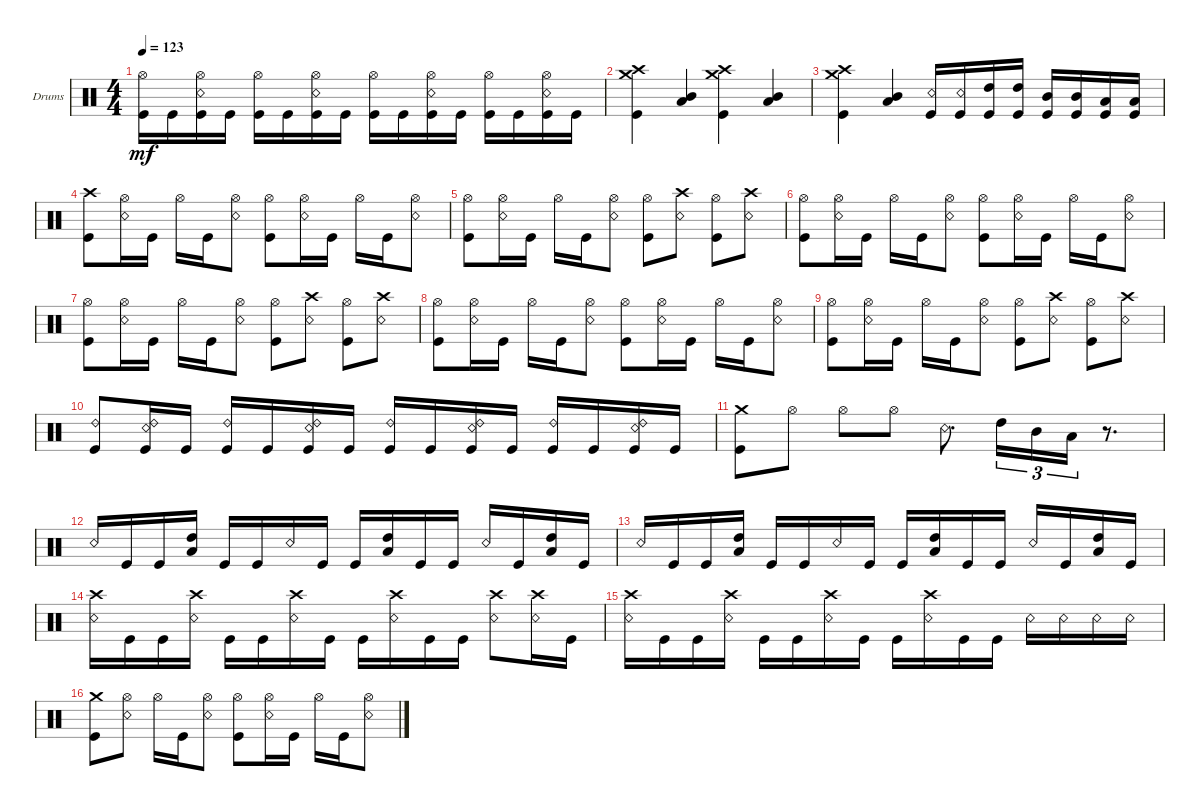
\defaultSystemsLayout 4
\bracketExtendMode groupsimilarinstruments
\firstSystemTrackNameOrientation horizontal
\otherSystemsTrackNameOrientation horizontal
\track ("Drums" "Drums") {instrument percussion}
\staff {score}
\articulation defaults
\ts (4 4)
\tempo 123
\clef neutral
\scale
0.333333
\ks c
("Kick (hit)" "Hi-Hat (open)").16{dy mf} "Kick (hit)".16 ("Kick (hit)" "Hi-Hat (open)" "Snare (rim shot)").16 "Kick (hit)".16 ("Kick (hit)" "Hi-Hat (open)").16 "Kick (hit)".16 ("Kick (hit)" "Hi-Hat (open)" "Snare (rim shot)").16 "Kick (hit)".16 ("Kick (hit)" "Hi-Hat (open)").16 "Kick (hit)".16 ("Kick (hit)" "Hi-Hat (open)" "Snare (rim shot)").16 "Kick (hit)".16 ("Kick (hit)" "Hi-Hat (open)").16 "Kick (hit)".16 ("Kick (hit)" "Snare (rim shot)" "Hi-Hat (open)").16 "Kick (hit)".16 |
\scale
0.333333 ("Kick (hit)" "Crash medium (hit)" "Crash high (hit)").4 ("Low Tom (hit)" "Mid Tom (hit)").4 ("Kick (hit)" "Crash high (hit)" "Crash medium (hit)").4 ("Mid Tom (hit)" "Low Tom (hit)").4 |
\scale
0.333333 ("Kick (hit)" "Crash medium (hit)" "Crash high (hit)").4 ("Low Tom (hit)" "Mid Tom (hit)").4 ("Kick (hit)" "Snare (rim shot)").16 ("Kick (hit)" "Snare (rim shot)").16 ("Kick (hit)" "High Tom (hit)").16 ("Kick (hit)" "High Tom (hit)").16 ("Kick (hit)" "Mid Tom (hit)").16 ("Kick (hit)" "Mid Tom (hit)").16 ("Kick (hit)" "Low Tom (hit)").16 ("Kick (hit)" "Low Tom (hit)").16 |
\scale
0.333333 ("Kick (hit)" "Crash high (hit)").8 ("Snare (rim shot)" "Hi-Hat (open)").16 "Kick (hit)".16 "Hi-Hat (open)".16 "Kick (hit)".16 ("Snare (rim shot)" "Hi-Hat (open)").8 ("Kick (hit)" "Hi-Hat (open)").8 ("Snare (rim shot)" "Hi-Hat (open)").16 "Kick (hit)".16 "Hi-Hat (open)".16 "Kick (hit)".16 ("Snare (rim shot)" "Hi-Hat (open)").8 |
\scale
0.333333 ("Kick (hit)" "Hi-Hat (open)").8 ("Snare (rim shot)" "Hi-Hat (open)").16 "Kick (hit)".16 "Hi-Hat (open)".16 "Kick (hit)".16 ("Snare (rim shot)" "Hi-Hat (open)").8 ("Kick (hit)" "Hi-Hat (open)").8 ("Snare (rim shot)" "Crash high (hit)").8 ("Kick (hit)" "Hi-Hat (open)").8 ("Snare (rim shot)" "Crash high (hit)").8 |
\scale
0.333333 ("Kick (hit)" "Hi-Hat (open)").8 ("Snare (rim shot)" "Hi-Hat (open)").16 "Kick (hit)".16 "Hi-Hat (open)".16 "Kick (hit)".16 ("Snare (rim shot)" "Hi-Hat (open)").8 ("Kick (hit)" "Hi-Hat (open)").8 ("Snare (rim shot)" "Hi-Hat (open)").16 "Kick (hit)".16 "Hi-Hat (open)".16 "Kick (hit)".16 ("Snare (rim shot)" "Hi-Hat (open)").8 |
\scale
0.333333 ("Kick (hit)" "Hi-Hat (open)").8 ("Snare (rim shot)" "Hi-Hat (open)").16 "Kick (hit)".16 "Hi-Hat (open)".16 "Kick (hit)".16 ("Snare (rim shot)" "Hi-Hat (open)").8 ("Kick (hit)" "Hi-Hat (open)").8 ("Snare (rim shot)" "Crash high (hit)").8 ("Kick (hit)" "Hi-Hat (open)").8 ("Snare (rim shot)" "Crash high (hit)").8 |
\scale
0.333333 ("Kick (hit)" "Hi-Hat (open)").8 ("Snare (rim shot)" "Hi-Hat (open)").16 "Kick (hit)".16 "Hi-Hat (open)".16 "Kick (hit)".16 ("Snare (rim shot)" "Hi-Hat (open)").8 ("Kick (hit)" "Hi-Hat (open)").8 ("Snare (rim shot)" "Hi-Hat (open)").16 "Kick (hit)".16 "Hi-Hat (open)".16 "Kick (hit)".16 ("Snare (rim shot)" "Hi-Hat (open)").8 |
\scale
0.333333 ("Kick (hit)" "Hi-Hat (open)").8 ("Snare (rim shot)" "Hi-Hat (open)").16 "Kick (hit)".16 "Hi-Hat (open)".16 "Kick (hit)".16 ("Snare (rim shot)" "Hi-Hat (open)").8 ("Kick (hit)" "Hi-Hat (open)").8 ("Snare (rim shot)" "Crash high (hit)").8 ("Kick (hit)" "Hi-Hat (open)").8 ("Snare (rim shot)" "Crash high (hit)").8 |
\scale
0.333333 ("Kick (hit)" "Ride (bell) 2").8 ("Kick (hit)" "Snare (rim shot)" "Ride (bell) 2").16 "Kick (hit)".16 ("Kick (hit)" "Ride (bell) 2").16 "Kick (hit)".16 ("Kick (hit)" "Snare (rim shot)" "Ride (bell) 2").16 "Kick (hit)".16 ("Kick (hit)" "Ride (bell) 2").16 "Kick (hit)".16 ("Kick (hit)" "Snare (rim shot)" "Ride (bell) 2").16 "Kick (hit)".16 ("Kick (hit)" "Ride (bell) 2").16 "Kick (hit)".16 ("Kick (hit)" "Snare (rim shot)" "Ride (bell) 2").16 "Kick (hit)".16 |
\scale
0.333333 ("Kick (hit)" "Crash medium (hit)").8 "Hi-Hat (open)".8 "Hi-Hat (open)".8 "Hi-Hat (open)".8 "Snare (rim shot)".8{d} "High Tom (hit)".16{tu (3 2)} "Mid Tom (hit)".16{tu (3 2)} "Low Tom (hit)".16{tu (3 2)} r.8{d} |
\scale
0.333333 "Snare (rim shot)".16 "Kick (hit)".16 "Kick (hit)".16 ("Low Tom (hit)" "High Tom (hit)").16 "Kick (hit)".16 "Kick (hit)".16 "Snare (rim shot)".16 "Kick (hit)".16 "Kick (hit)".16 ("High Tom (hit)" "Low Tom (hit)").16 "Kick (hit)".16 "Kick (hit)".16 "Snare (rim shot)".16 "Kick (hit)".16 ("Low Tom (hit)" "High Tom (hit)").16 "Kick (hit)".16 |
\scale
0.333333 "Snare (rim shot)".16 "Kick (hit)".16 "Kick (hit)".16 ("Low Tom (hit)" "High Tom (hit)").16 "Kick (hit)".16 "Kick (hit)".16 "Snare (rim shot)".16 "Kick (hit)".16 "Kick (hit)".16 ("High Tom (hit)" "Low Tom (hit)").16 "Kick (hit)".16 "Kick (hit)".16 "Snare (rim shot)".16 "Kick (hit)".16 ("Low Tom (hit)" "High Tom (hit)").16 "Kick (hit)".16 |
\scale
0.333333 ("Snare (rim shot)" "Crash high (hit)").16 "Kick (hit)".16 "Kick (hit)".16 ("Snare (rim shot)" "Crash high (hit)").16 "Kick (hit)".16 "Kick (hit)".16 ("Snare (rim shot)" "Crash high (hit)").16 "Kick (hit)".16 "Kick (hit)".16 ("Snare (rim shot)" "Crash high (hit)").16 "Kick (hit)".16 "Kick (hit)".16 ("Snare (rim shot)" "Crash high (hit)").8 ("Snare (rim shot)" "Crash high (hit)").16 "Kick (hit)".16 |
\scale
0.333333 ("Snare (rim shot)" "Crash high (hit)").16 "Kick (hit)".16 "Kick (hit)".16 ("Snare (rim shot)" "Crash high (hit)").16 "Kick (hit)".16 "Kick (hit)".16 ("Snare (rim shot)" "Crash high (hit)").16 "Kick (hit)".16 "Kick (hit)".16 ("Snare (rim shot)" "Crash high (hit)").16 "Kick (hit)".16 "Kick (hit)".16 "Snare (rim shot)".16 "Snare (rim shot)".16 "Snare (rim shot)".16 "Snare (rim shot)".16 |
\scale
0.333333 ("Kick (hit)" "Crash medium (hit)").8 ("Snare (rim shot)" "Hi-Hat (open)").8 "Hi-Hat (open)".16 "Kick (hit)".16 ("Snare (rim shot)" "Hi-Hat (open)").8 ("Kick (hit)" "Hi-Hat (open)").8 ("Snare (rim shot)" "Hi-Hat (open)").16 "Kick (hit)".16 "Hi-Hat (open)".16 "Kick (hit)".16 ("Snare (rim shot)" "Hi-Hat (open)").8
